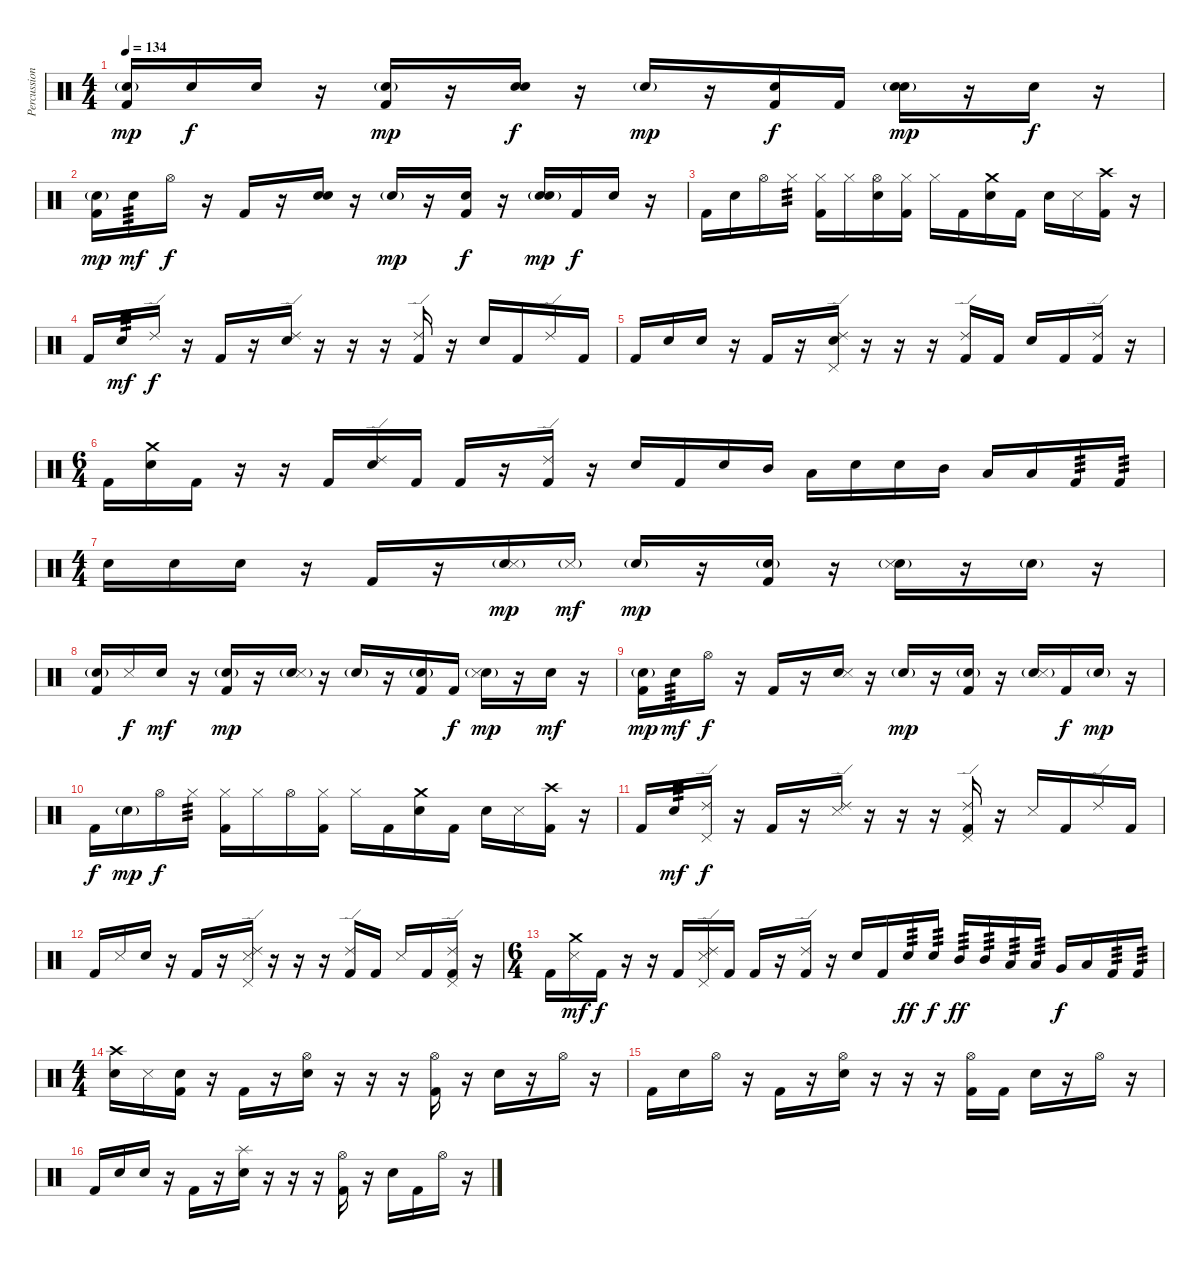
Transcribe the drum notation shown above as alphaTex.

\track ("Percussion" "Percussion") {instrument percussion}
\staff {score}
\articulation defaults
\ts (4 4)
\tempo 134
\clef neutral
\ks c
("Snare (hit)"{g} "Kick (hit) 2").16{dy mp} "Snare (hit) 2".16{dy f} "Snare (hit)".16 r.16 ("Snare (hit)"{g} "Kick (hit) 2").16{dy mp} r.16 ("Snare (hit)" "Snare (hit) 2").16{dy f} r.16 "Snare (hit)"{g}.16{dy mp} r.16 ("Snare (hit)" "Kick (hit) 2").16{dy f} "Kick (hit) 2".16 ("Snare (hit)"{g} "Snare (hit) 2").16{dy mp} r.16 "Snare (hit)".16{dy f} r.16 |
("Snare (hit)"{g} "Kick (hit) 2").16{dy mp} "Snare (hit) 2".16{tp 3 dy mf} "Hi-Hat (open)".16{dy f} r.16 "Kick (hit) 2".16 r.16 ("Snare (hit)" "Snare (hit) 2").16 r.16 "Snare (hit)"{g}.16{dy mp} r.16 ("Snare (hit)" "Kick (hit) 2").16{dy f} r.16 ("Snare (hit)"{g} "Snare (hit) 2").16{dy mp} "Kick (hit) 2".16{dy f} "Snare (hit)".16 r.16 |
"Kick (hit) 2".16 "Snare (hit) 2".16 "Hi-Hat (open)".16 "Hi-Hat (closed)".16{tp 3} ("Hi-Hat (closed)" "Kick (hit) 2").16 "Hi-Hat (closed)".16 ("Hi-Hat (open)" "Snare (hit) 2").16 ("Hi-Hat (closed)" "Kick (hit) 2").16 "Hi-Hat (closed)".16 "Kick (hit) 2".16 ("Crash medium (hit)" "Snare (hit) 2").16 "Kick (hit) 2".16 "Snare (hit) 2".16 "Metronome (hit)".16 ("Crash high (hit)" "Kick (hit) 2").16 r.16 |
"Kick (hit) 2".16 "Snare (hit) 2".16{tp 3 dy mf} "Ride (edge) 2".16{dy f} r.16 "Kick (hit) 2".16 r.16 ("Ride (edge) 2" "Snare (hit) 2").16 r.16 r.16 r.16 ("Ride (edge) 2" "Kick (hit) 2").16 r.16 "Snare (hit) 2".16 "Kick (hit) 2".16 "Ride (edge) 2".16 "Kick (hit) 2".16 |
"Kick (hit) 2".16 "Snare (hit) 2".16 "Snare (hit)".16 r.16 "Kick (hit) 2".16 r.16 ("Ride (edge) 2" "Pedal Hi-Hat (hit)" "Snare (hit) 2").16 r.16 r.16 r.16 ("Ride (edge) 2" "Kick (hit) 2").16 "Kick (hit) 2".16 "Snare (hit) 2".16 "Kick (hit) 2".16 ("Ride (edge) 2" "Kick (hit) 2").16 r.16 |
\ts (6 4)
"Kick (hit) 2".16 ("Crash medium (hit)" "Snare (hit) 2").16 "Kick (hit) 2".16 r.16 r.16 "Kick (hit) 2".16 ("Ride (edge) 2" "Snare (hit) 2").16 "Kick (hit) 2".16 "Kick (hit) 2".16 r.16 ("Ride (edge) 2" "Kick (hit) 2").16 r.16 "Snare (hit) 2".16 "Kick (hit) 2".16 "Snare (hit) 2".16 "Mid Tom (hit)".16 "Low Tom (hit)".16 "Snare (hit) 2".16 "Snare (hit) 2".16 "Mid Tom (hit)".16 "Low Tom (hit)".16 "Low Tom (hit)".16 "Kick (hit) 2".16{tp 3} "Kick (hit) 2".16{tp 3} |
\ts (4 4)
"Electric Snare (hit)".16 "Electric Snare (hit)".16 "Snare (hit)".16 r.16 "Kick (hit) 2".16 r.16 ("Snare (hit)"{g} "Snare (side stick) 3").16{dy mp} "Snare (side stick) 3"{g}.16{dy mf} "Snare (hit)"{g}.16{dy mp} r.16 ("Snare (hit)"{g} "Kick (hit) 2").16 r.16 ("Snare (hit)"{g} "Snare (side stick) 3").16 r.16 "Snare (hit)"{g}.16 r.16 |
("Snare (hit)"{g} "Kick (hit) 2").16 "Snare (side stick) 3".16{dy f} "Snare (hit)".16{dy mf} r.16 ("Snare (hit)"{g} "Kick (hit) 2").16{dy mp} r.16 ("Snare (hit)"{g} "Snare (side stick) 3").16 r.16 "Snare (hit)"{g}.16 r.16 ("Snare (hit)"{g} "Kick (hit) 2").16 "Kick (hit) 2".16{dy f} ("Snare (hit)"{g} "Snare (side stick) 3").16{dy mp} r.16 "Snare (hit)".16{dy mf} r.16 |
("Snare (hit)"{g} "Kick (hit) 2").16{dy mp} "Snare (hit) 2".16{tp 3 dy mf} "Hi-Hat (open)".16{dy f} r.16 "Kick (hit) 2".16 r.16 ("Snare (hit)" "Snare (side stick) 3").16 r.16 "Snare (hit)"{g}.16{dy mp} r.16 ("Snare (hit)"{g} "Kick (hit) 2").16 r.16 ("Snare (hit)"{g} "Snare (side stick) 3").16 "Kick (hit) 2".16{dy f} "Snare (hit)"{g}.16{dy mp} r.16 |
"Kick (hit) 2".16{dy f} "Snare (hit) 2"{g}.16{dy mp} "Hi-Hat (open)".16{dy f} "Hi-Hat (closed)".16{tp 3} ("Hi-Hat (closed)" "Kick (hit) 2").16 "Hi-Hat (closed)".16 "Hi-Hat (open)".16 ("Hi-Hat (closed)" "Kick (hit) 2").16 "Hi-Hat (closed)".16 "Kick (hit) 2".16 ("Crash medium (hit)" "Snare (hit) 2").16 "Kick (hit) 2".16 "Snare (hit) 2".16 "Metronome (hit)".16 ("Crash high (hit)" "Kick (hit) 2").16 r.16 |
"Kick (hit) 2".16 "Snare (hit) 2".16{tp 3 dy mf} ("Ride (edge) 2" "Pedal Hi-Hat (hit)").16{dy f} r.16 "Kick (hit) 2".16 r.16 ("Ride (edge) 2" "Snare (side stick) 3").16 r.16 r.16 r.16 ("Ride (edge) 2" "Pedal Hi-Hat (hit)" "Kick (hit) 2").16 r.16 "Snare (side stick) 3".16 "Kick (hit) 2".16 "Ride (edge) 2".16 "Kick (hit) 2".16 |
"Kick (hit) 2".16 "Snare (side stick) 3".16 "Snare (hit)".16 r.16 "Kick (hit) 2".16 r.16 ("Ride (edge) 2" "Pedal Hi-Hat (hit)" "Snare (side stick) 3").16 r.16 r.16 r.16 ("Ride (edge) 2" "Kick (hit) 2").16 "Kick (hit) 2".16 "Snare (side stick) 3".16 "Kick (hit) 2".16 ("Ride (edge) 2" "Pedal Hi-Hat (hit)" "Kick (hit) 2").16 r.16 |
\ts (6 4)
"Kick (hit) 2".16 ("Crash medium (hit)" "Snare (side stick) 3").16{dy mf} "Kick (hit) 2".16{dy f} r.16 r.16 "Kick (hit) 2".16 ("Ride (edge) 2" "Pedal Hi-Hat (hit)" "Snare (side stick) 3").16 "Kick (hit) 2".16 "Kick (hit) 2".16 r.16 ("Ride (edge) 2" "Kick (hit) 2").16 r.16 "Snare (hit) 2".16 "Kick (hit) 2".16 "Snare (hit) 2".16{tp 3 dy ff} "Snare (hit) 2".16{tp 3 dy f} "Mid Tom (hit)".16{tp 3 dy ff} "Mid Tom (hit)".16{tp 3} "Low Tom (hit)".16{tp 3} "Low Tom (hit)".16{tp 3} "Very Low Tom (hit)".16{dy f} "Low Floor Tom (hit)".16 "Kick (hit) 2".16{tp 3} "Kick (hit) 2".16{tp 3} |
\ts (4 4)
("Crash high (hit)" "Snare (hit) 2").16 "Metronome (hit)".16 ("Snare (hit)" "Kick (hit) 2").16 r.16 "Kick (hit) 2".16 r.16 ("Hi-Hat (open)" "Snare (hit) 2").16 r.16 r.16 r.16 ("Hi-Hat (open)" "Kick (hit) 2").16 r.16 "Snare (hit) 2".16 r.16 "Hi-Hat (open)".16 r.16 |
"Kick (hit) 2".16 "Snare (hit) 2".16 "Hi-Hat (open)".16 r.16 "Kick (hit) 2".16 r.16 ("Hi-Hat (open)" "Snare (hit) 2").16 r.16 r.16 r.16 ("Hi-Hat (open)" "Kick (hit) 2").16 "Kick (hit) 2".16 "Snare (hit) 2".16 r.16 "Hi-Hat (open)".16 r.16 |
"Kick (hit) 2".16 "Snare (hit) 2".16 "Snare (hit)".16 r.16 "Kick (hit) 2".16 r.16 ("Splash (hit)" "Snare (hit) 2").16 r.16 r.16 r.16 ("Hi-Hat (open)" "Kick (hit) 2").16 r.16 "Snare (hit) 2".16 "Kick (hit) 2".16 "Hi-Hat (open)".16 r.16
